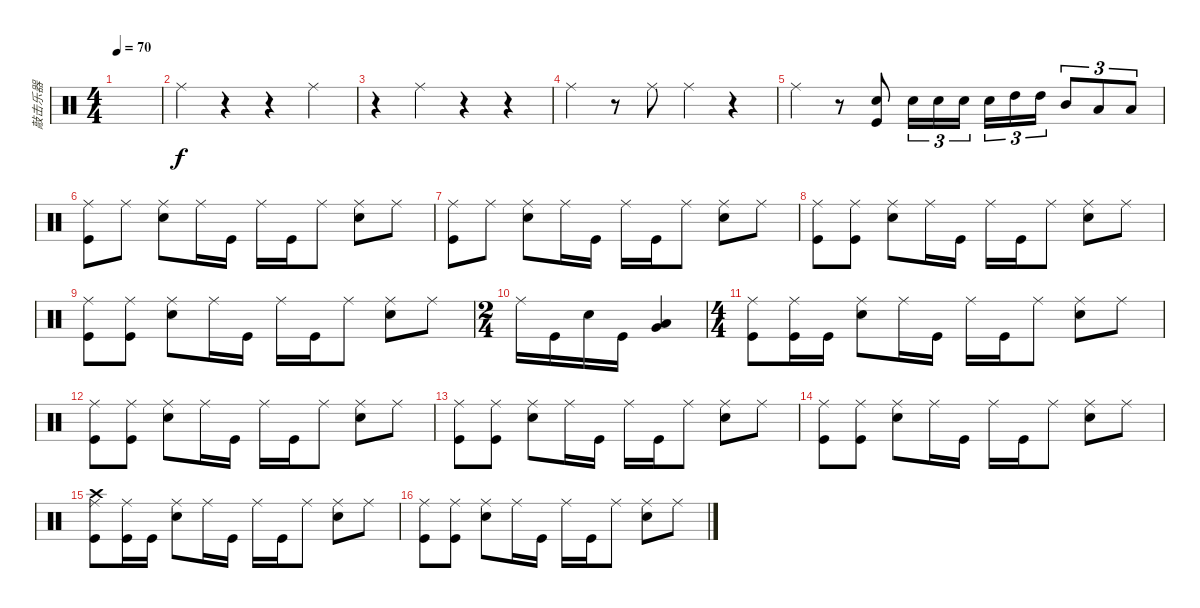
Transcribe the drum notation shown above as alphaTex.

\track ("敲击乐器" "敲击乐器") {instrument percussion}
\staff {score}
\articulation defaults
\ts (4 4)
\tempo 70
\clef neutral
\ks c
|
"Ride (middle)".4 r.4 r.4 "Ride (middle)".4 |
r.4 "Ride (middle)".4 r.4 r.4 |
"Ride (middle)".4 r.8 "Ride (middle)".8 "Ride (middle)".4 r.4 |
"Ride (middle)".4 r.8 ("Snare (hit) 2" "Kick (hit)").8 "Snare (hit) 2".16{tu (3 2)} "Snare (hit) 2".16{tu (3 2)} "Snare (hit) 2".16{tu (3 2) beam splitsecondary} "Snare (hit) 2".16{tu (3 2)} "High Tom (hit)".16{tu (3 2)} "High Tom (hit)".16{tu (3 2)} "Mid Tom (hit)".8{tu (3 2)} "Low Tom (hit)".8{tu (3 2)} "Low Tom (hit)".8{tu (3 2)} |
("Ride (middle)" "Kick (hit)").8 "Ride (middle)".8 ("Ride (middle)" "Electric Snare (hit)").8 "Ride (middle)".16 "Kick (hit)".16 "Ride (middle)".16 "Kick (hit)".16 "Ride (middle)".8 ("Ride (middle)" "Electric Snare (hit)").8 "Ride (middle)".8 |
("Ride (middle)" "Kick (hit)").8 "Ride (middle)".8 ("Ride (middle)" "Electric Snare (hit)").8 "Ride (middle)".16 "Kick (hit)".16 "Ride (middle)".16 "Kick (hit)".16 "Ride (middle)".8 ("Ride (middle)" "Electric Snare (hit)").8 "Ride (middle)".8 |
("Ride (middle)" "Kick (hit)").8 ("Ride (middle)" "Kick (hit)").8 ("Ride (middle)" "Electric Snare (hit)").8 "Ride (middle)".16 "Kick (hit)".16 "Ride (middle)".16 "Kick (hit)".16 "Ride (middle)".8 ("Ride (middle)" "Electric Snare (hit)").8 "Ride (middle)".8 |
("Ride (middle)" "Kick (hit)").8 ("Ride (middle)" "Kick (hit)").8 ("Ride (middle)" "Electric Snare (hit)").8 "Ride (middle)".16 "Kick (hit)".16 "Ride (middle)".16 "Kick (hit)".16 "Ride (middle)".8 ("Ride (middle)" "Electric Snare (hit)").8 "Ride (middle)".8 |
\ts (2 4)
"Ride (middle)".16 "Kick (hit)".16 "Electric Snare (hit)".16 "Kick (hit)".16 ("Very Low Tom (hit)" "Low Tom (hit)").4 |
\ts (4 4)
("Ride (middle)" "Kick (hit)").8 ("Ride (middle)" "Kick (hit)").16 "Kick (hit)".16 ("Ride (middle)" "Electric Snare (hit)").8 "Ride (middle)".16 "Kick (hit)".16 "Ride (middle)".16 "Kick (hit)".16 "Ride (middle)".8 ("Ride (middle)" "Electric Snare (hit)").8 "Ride (middle)".8 |
("Ride (middle)" "Kick (hit)").8 ("Ride (middle)" "Kick (hit)").8 ("Ride (middle)" "Electric Snare (hit)").8 "Ride (middle)".16 "Kick (hit)".16 "Ride (middle)".16 "Kick (hit)".16 "Ride (middle)".8 ("Ride (middle)" "Electric Snare (hit)").8 "Ride (middle)".8 |
("Ride (middle)" "Kick (hit)").8 ("Ride (middle)" "Kick (hit)").8 ("Ride (middle)" "Electric Snare (hit)").8 "Ride (middle)".16 "Kick (hit)".16 "Ride (middle)".16 "Kick (hit)".16 "Ride (middle)".8 ("Ride (middle)" "Electric Snare (hit)").8 "Ride (middle)".8 |
("Ride (middle)" "Kick (hit)").8 ("Ride (middle)" "Kick (hit)").8 ("Ride (middle)" "Electric Snare (hit)").8 "Ride (middle)".16 "Kick (hit)".16 "Ride (middle)".16 "Kick (hit)".16 "Ride (middle)".8 ("Ride (middle)" "Electric Snare (hit)").8 "Ride (middle)".8 |
("Ride (middle)" "Crash high (hit)" "Kick (hit)").8 ("Ride (middle)" "Kick (hit)").16 "Kick (hit)".16 ("Ride (middle)" "Electric Snare (hit)").8 "Ride (middle)".16 "Kick (hit)".16 "Ride (middle)".16 "Kick (hit)".16 "Ride (middle)".8 ("Ride (middle)" "Electric Snare (hit)").8 "Ride (middle)".8 |
("Ride (middle)" "Kick (hit)").8 ("Ride (middle)" "Kick (hit)").8 ("Ride (middle)" "Electric Snare (hit)").8 "Ride (middle)".16 "Kick (hit)".16 "Ride (middle)".16 "Kick (hit)".16 "Ride (middle)".8 ("Ride (middle)" "Electric Snare (hit)").8 "Ride (middle)".8
